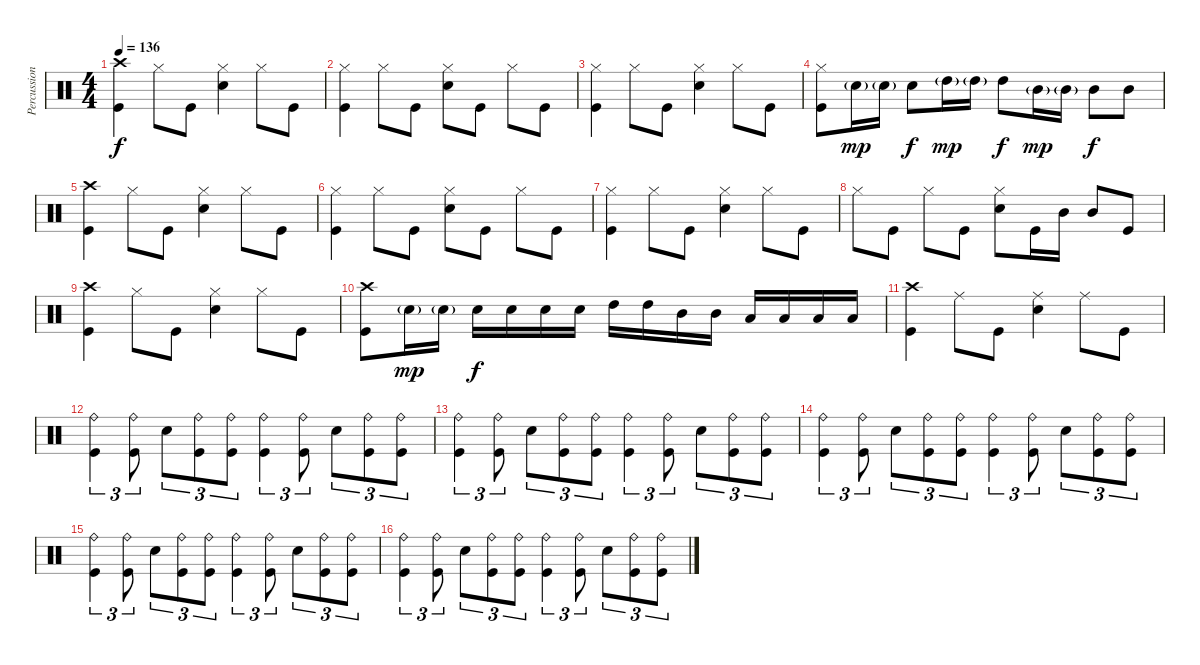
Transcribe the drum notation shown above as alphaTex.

\track ("Percussion" "Percussion") {instrument percussion}
\staff {score}
\articulation defaults
\ts (4 4)
\tempo 136
\clef neutral
\ks c
("Crash high (hit)" "Kick (hit)").4{dy f} "Hi-Hat (closed)".8 "Kick (hit)".8 ("Hi-Hat (closed)" "Snare (hit) 2").4 "Hi-Hat (closed)".8 "Kick (hit)".8 |
("Hi-Hat (closed)" "Kick (hit)").4 "Hi-Hat (closed)".8 "Kick (hit)".8 ("Hi-Hat (closed)" "Snare (hit) 2").8 "Kick (hit)".8 "Hi-Hat (closed)".8 "Kick (hit)".8 |
("Hi-Hat (closed)" "Kick (hit)").4 "Hi-Hat (closed)".8 "Kick (hit)".8 ("Hi-Hat (closed)" "Snare (hit) 2").4 "Hi-Hat (closed)".8 "Kick (hit)".8 |
("Hi-Hat (closed)" "Kick (hit)").8 "Snare (hit) 2"{g}.16{dy mp} "Snare (hit) 2"{g}.16 "Snare (hit) 2".8{dy f} "High Tom (hit)"{g}.16{dy mp} "High Tom (hit)"{g}.16 "High Tom (hit)".8{dy f} "Mid Tom (hit)"{g}.16{dy mp} "Mid Tom (hit)"{g}.16 "Mid Tom (hit)".8{dy f} "Mid Tom (hit)".8 |
("Crash high (hit)" "Kick (hit)").4 "Hi-Hat (closed)".8 "Kick (hit)".8 ("Hi-Hat (closed)" "Snare (hit) 2").4 "Hi-Hat (closed)".8 "Kick (hit)".8 |
("Hi-Hat (closed)" "Kick (hit)").4 "Hi-Hat (closed)".8 "Kick (hit)".8 ("Hi-Hat (closed)" "Snare (hit) 2").8 "Kick (hit)".8 "Hi-Hat (closed)".8 "Kick (hit)".8 |
("Hi-Hat (closed)" "Kick (hit)").4 "Hi-Hat (closed)".8 "Kick (hit)".8 ("Hi-Hat (closed)" "Snare (hit) 2").4 "Hi-Hat (closed)".8 "Kick (hit)".8 |
"Hi-Hat (closed)".8 "Kick (hit)".8 "Hi-Hat (closed)".8 "Kick (hit)".8 ("Hi-Hat (closed)" "Snare (hit) 2").8 "Kick (hit)".16 "Mid Tom (hit)".16 "Mid Tom (hit)".8 "Kick (hit)".8 |
("Crash high (hit)" "Kick (hit)").4 "Hi-Hat (closed)".8 "Kick (hit)".8 ("Hi-Hat (closed)" "Snare (hit) 2").4 "Hi-Hat (closed)".8 "Kick (hit)".8 |
("Crash high (hit)" "Kick (hit)").8 "Snare (hit) 2"{g}.16{dy mp} "Snare (hit) 2"{g}.16 "Snare (hit) 2".16{dy f} "Snare (hit) 2".16 "Snare (hit) 2".16 "Snare (hit) 2".16 "High Tom (hit)".16 "High Tom (hit)".16 "Mid Tom (hit)".16 "Mid Tom (hit)".16 "Low Floor Tom (hit)".16 "Low Floor Tom (hit)".16 "Low Floor Tom (hit)".16 "Low Floor Tom (hit)".16 |
("Crash high (hit)" "Kick (hit)").4 "Ride (middle)".8 "Kick (hit)".8 ("Ride (middle)" "Snare (hit) 2").4 "Ride (middle)".8 "Kick (hit)".8 |
("Ride (bell)" "Kick (hit)").4{tu (3 2)} ("Ride (bell)" "Kick (hit)").8{tu (3 2)} "Snare (hit) 2".8{tu (3 2)} ("Ride (bell)" "Kick (hit)").8{tu (3 2)} ("Ride (bell)" "Kick (hit)").8{tu (3 2)} ("Ride (bell)" "Kick (hit)").4{tu (3 2)} ("Ride (bell)" "Kick (hit)").8{tu (3 2)} "Snare (hit) 2".8{tu (3 2)} ("Ride (bell)" "Kick (hit)").8{tu (3 2)} ("Ride (bell)" "Kick (hit)").8{tu (3 2)} |
("Ride (bell)" "Kick (hit)").4{tu (3 2)} ("Ride (bell)" "Kick (hit)").8{tu (3 2)} "Snare (hit) 2".8{tu (3 2)} ("Ride (bell)" "Kick (hit)").8{tu (3 2)} ("Ride (bell)" "Kick (hit)").8{tu (3 2)} ("Ride (bell)" "Kick (hit)").4{tu (3 2)} ("Ride (bell)" "Kick (hit)").8{tu (3 2)} "Snare (hit) 2".8{tu (3 2)} ("Ride (bell)" "Kick (hit)").8{tu (3 2)} ("Ride (bell)" "Kick (hit)").8{tu (3 2)} |
("Ride (bell)" "Kick (hit)").4{tu (3 2)} ("Ride (bell)" "Kick (hit)").8{tu (3 2)} "Snare (hit) 2".8{tu (3 2)} ("Ride (bell)" "Kick (hit)").8{tu (3 2)} ("Ride (bell)" "Kick (hit)").8{tu (3 2)} ("Ride (bell)" "Kick (hit)").4{tu (3 2)} ("Ride (bell)" "Kick (hit)").8{tu (3 2)} "Snare (hit) 2".8{tu (3 2)} ("Ride (bell)" "Kick (hit)").8{tu (3 2)} ("Ride (bell)" "Kick (hit)").8{tu (3 2)} |
("Ride (bell)" "Kick (hit)").4{tu (3 2)} ("Ride (bell)" "Kick (hit)").8{tu (3 2)} "Snare (hit) 2".8{tu (3 2)} ("Ride (bell)" "Kick (hit)").8{tu (3 2)} ("Ride (bell)" "Kick (hit)").8{tu (3 2)} ("Ride (bell)" "Kick (hit)").4{tu (3 2)} ("Ride (bell)" "Kick (hit)").8{tu (3 2)} "Snare (hit) 2".8{tu (3 2)} ("Ride (bell)" "Kick (hit)").8{tu (3 2)} ("Ride (bell)" "Kick (hit)").8{tu (3 2)} |
("Ride (bell)" "Kick (hit)").4{tu (3 2)} ("Ride (bell)" "Kick (hit)").8{tu (3 2)} "Snare (hit) 2".8{tu (3 2)} ("Ride (bell)" "Kick (hit)").8{tu (3 2)} ("Ride (bell)" "Kick (hit)").8{tu (3 2)} ("Ride (bell)" "Kick (hit)").4{tu (3 2)} ("Ride (bell)" "Kick (hit)").8{tu (3 2)} "Snare (hit) 2".8{tu (3 2)} ("Ride (bell)" "Kick (hit)").8{tu (3 2)} ("Ride (bell)" "Kick (hit)").8{tu (3 2)}
